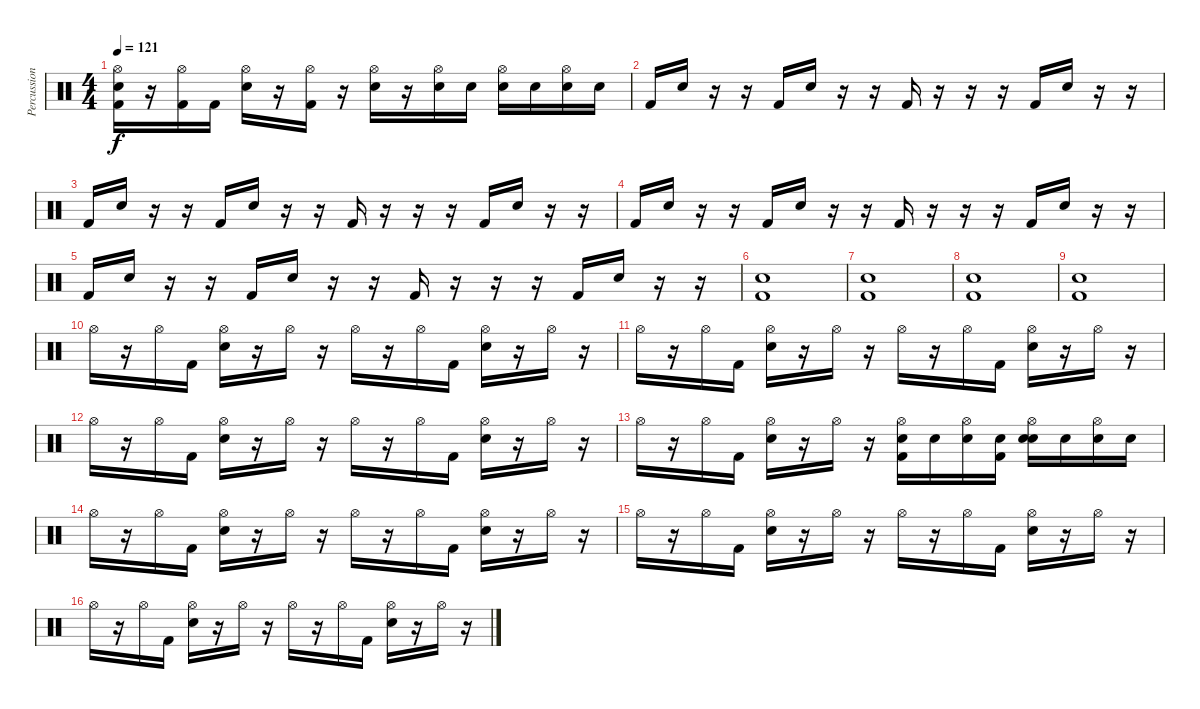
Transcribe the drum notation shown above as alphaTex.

\track ("Percussion- Mike" "Percussion") {instrument percussion}
\staff {score}
\articulation defaults
\ts (4 4)
\tempo 121
\clef neutral
\ks c
("Snare (hit) 2" "Kick (hit) 2" "Hi-Hat (open)").16{dy f} r.16 ("Kick (hit) 2" "Hi-Hat (open)").16 "Kick (hit) 2".16 ("Snare (hit) 2" "Hi-Hat (open)").16 r.16 ("Kick (hit) 2" "Hi-Hat (open)").16 r.16 ("Snare (hit) 2" "Hi-Hat (open)").16 r.16 ("Electric Snare (hit)" "Hi-Hat (open)").16 "Electric Snare (hit)".16 ("Electric Snare (hit)" "Hi-Hat (open)").16 "Electric Snare (hit)".16 ("Electric Snare (hit)" "Hi-Hat (open)").16 "Electric Snare (hit)".16 |
"Kick (hit) 2".16 "Electric Snare (hit)".16 r.16 r.16 "Kick (hit) 2".16 "Electric Snare (hit)".16 r.16 r.16 "Kick (hit) 2".16 r.16 r.16 r.16 "Kick (hit) 2".16 "Electric Snare (hit)".16 r.16 r.16 |
"Kick (hit) 2".16 "Electric Snare (hit)".16 r.16 r.16 "Kick (hit) 2".16 "Electric Snare (hit)".16 r.16 r.16 "Kick (hit) 2".16 r.16 r.16 r.16 "Kick (hit) 2".16 "Electric Snare (hit)".16 r.16 r.16 |
"Kick (hit) 2".16 "Electric Snare (hit)".16 r.16 r.16 "Kick (hit) 2".16 "Electric Snare (hit)".16 r.16 r.16 "Kick (hit) 2".16 r.16 r.16 r.16 "Kick (hit) 2".16 "Electric Snare (hit)".16 r.16 r.16 |
"Kick (hit) 2".16 "Electric Snare (hit)".16 r.16 r.16 "Kick (hit) 2".16 "Electric Snare (hit)".16 r.16 r.16 "Kick (hit) 2".16 r.16 r.16 r.16 "Kick (hit) 2".16 "Electric Snare (hit)".16 r.16 r.16 |
("Electric Snare (hit)" "Kick (hit) 2").1 |
("Electric Snare (hit)" "Kick (hit) 2").1 |
("Electric Snare (hit)" "Kick (hit) 2").1 |
("Electric Snare (hit)" "Kick (hit) 2").1 |
"Hi-Hat (open)".16 r.16 "Hi-Hat (open)".16 "Kick (hit) 2".16 ("Electric Snare (hit)" "Hi-Hat (open)").16 r.16 "Hi-Hat (open)".16 r.16 "Hi-Hat (open)".16 r.16 "Hi-Hat (open)".16 "Kick (hit) 2".16 ("Electric Snare (hit)" "Hi-Hat (open)").16 r.16 "Hi-Hat (open)".16 r.16 |
"Hi-Hat (open)".16 r.16 "Hi-Hat (open)".16 "Kick (hit) 2".16 ("Electric Snare (hit)" "Hi-Hat (open)").16 r.16 "Hi-Hat (open)".16 r.16 "Hi-Hat (open)".16 r.16 "Hi-Hat (open)".16 "Kick (hit) 2".16 ("Electric Snare (hit)" "Hi-Hat (open)").16 r.16 "Hi-Hat (open)".16 r.16 |
"Hi-Hat (open)".16 r.16 "Hi-Hat (open)".16 "Kick (hit) 2".16 ("Electric Snare (hit)" "Hi-Hat (open)").16 r.16 "Hi-Hat (open)".16 r.16 "Hi-Hat (open)".16 r.16 "Hi-Hat (open)".16 "Kick (hit) 2".16 ("Electric Snare (hit)" "Hi-Hat (open)").16 r.16 "Hi-Hat (open)".16 r.16 |
"Hi-Hat (open)".16 r.16 "Hi-Hat (open)".16 "Kick (hit) 2".16 ("Electric Snare (hit)" "Hi-Hat (open)").16 r.16 "Hi-Hat (open)".16 r.16 ("Electric Snare (hit)" "Kick (hit) 2" "Hi-Hat (open)").16 "Electric Snare (hit)".16 ("Electric Snare (hit)" "Hi-Hat (open)").16 ("Electric Snare (hit)" "Kick (hit) 2").16 ("Electric Snare (hit)" "Electric Snare (hit)" "Hi-Hat (open)").16 "Electric Snare (hit)".16 ("Electric Snare (hit)" "Hi-Hat (open)").16 "Electric Snare (hit)".16 |
"Hi-Hat (open)".16 r.16 "Hi-Hat (open)".16 "Kick (hit) 2".16 ("Electric Snare (hit)" "Hi-Hat (open)").16 r.16 "Hi-Hat (open)".16 r.16 "Hi-Hat (open)".16 r.16 "Hi-Hat (open)".16 "Kick (hit) 2".16 ("Electric Snare (hit)" "Hi-Hat (open)").16 r.16 "Hi-Hat (open)".16 r.16 |
"Hi-Hat (open)".16 r.16 "Hi-Hat (open)".16 "Kick (hit) 2".16 ("Electric Snare (hit)" "Hi-Hat (open)").16 r.16 "Hi-Hat (open)".16 r.16 "Hi-Hat (open)".16 r.16 "Hi-Hat (open)".16 "Kick (hit) 2".16 ("Electric Snare (hit)" "Hi-Hat (open)").16 r.16 "Hi-Hat (open)".16 r.16 |
"Hi-Hat (open)".16 r.16 "Hi-Hat (open)".16 "Kick (hit) 2".16 ("Electric Snare (hit)" "Hi-Hat (open)").16 r.16 "Hi-Hat (open)".16 r.16 "Hi-Hat (open)".16 r.16 "Hi-Hat (open)".16 "Kick (hit) 2".16 ("Electric Snare (hit)" "Hi-Hat (open)").16 r.16 "Hi-Hat (open)".16 r.16
